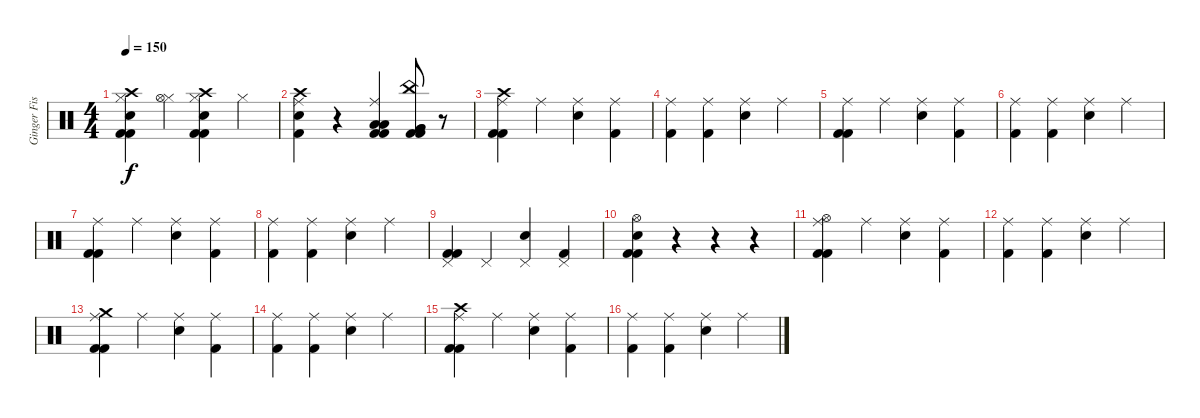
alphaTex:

\track ("Ginger Fish" "Ginger Fis") {instrument percussion}
\staff {score}
\articulation defaults
\ts (4 4)
\tempo 150
\clef neutral
\ks c
("Crash high (hit)" "Hi-Hat (closed)" "Electric Snare (hit)" "Kick (hit) 2" "Kick (hit) 2").4{dy f} ("Hi-Hat (closed)" "Hi-Hat (open)").4 ("Crash high (hit)" "Hi-Hat (closed)" "Electric Snare (hit)" "Kick (hit) 2" "Kick (hit) 2").4 "Hi-Hat (closed)".4 |
("Crash high (hit)" "Ride (middle)" "Electric Snare (hit)" "Kick (hit) 2").4 r.4 ("Ride (middle)" "Low Tom (hit)" "Low Tom (hit)" "Kick (hit) 2" "Kick (hit) 2").4 ("China (hit)" "Very Low Tom (hit)" "Very Low Tom (hit)" "Kick (hit) 2" "Kick (hit) 2").8 r.8 |
("Crash high (hit)" "Ride (middle)" "Kick (hit) 2" "Kick (hit) 2").4 "Ride (middle)".4 ("Ride (middle)" "Electric Snare (hit)").4 ("Ride (middle)" "Kick (hit) 2").4 |
("Ride (middle)" "Kick (hit) 2").4 ("Ride (middle)" "Kick (hit) 2").4 ("Ride (middle)" "Electric Snare (hit)").4 "Ride (middle)".4 |
("Ride (middle)" "Kick (hit) 2" "Kick (hit) 2").4 "Ride (middle)".4 ("Ride (middle)" "Electric Snare (hit)").4 ("Ride (middle)" "Kick (hit) 2").4 |
("Ride (middle)" "Kick (hit) 2").4 ("Ride (middle)" "Kick (hit) 2").4 ("Ride (middle)" "Electric Snare (hit)").4 "Ride (middle)".4 |
("Ride (middle)" "Kick (hit) 2" "Kick (hit) 2").4 "Ride (middle)".4 ("Ride (middle)" "Electric Snare (hit)").4 ("Ride (middle)" "Kick (hit) 2").4 |
("Ride (middle)" "Kick (hit) 2").4 ("Ride (middle)" "Kick (hit) 2").4 ("Ride (middle)" "Electric Snare (hit)").4 "Ride (middle)".4 |
("Pedal Hi-Hat (hit)" "Kick (hit) 2" "Kick (hit) 2").4 "Pedal Hi-Hat (hit)".4 ("Pedal Hi-Hat (hit)" "Electric Snare (hit)").4 ("Pedal Hi-Hat (hit)" "Kick (hit) 2").4 |
("Hi-Hat (open)" "Electric Snare (hit)" "Kick (hit) 2" "Kick (hit) 2").4 r.4 r.4 r.4 |
("Hi-Hat (open)" "Ride (middle)" "Kick (hit) 2" "Kick (hit) 2").4 "Ride (middle)".4 ("Ride (middle)" "Electric Snare (hit)").4 ("Ride (middle)" "Kick (hit) 2").4 |
("Ride (middle)" "Kick (hit) 2").4 ("Ride (middle)" "Kick (hit) 2").4 ("Ride (middle)" "Electric Snare (hit)").4 "Ride (middle)".4 |
("Crash medium (hit)" "Ride (middle)" "Kick (hit) 2" "Kick (hit) 2").4 "Ride (middle)".4 ("Ride (middle)" "Electric Snare (hit)").4 ("Ride (middle)" "Kick (hit) 2").4 |
("Ride (middle)" "Kick (hit) 2").4 ("Ride (middle)" "Kick (hit) 2").4 ("Ride (middle)" "Electric Snare (hit)").4 "Ride (middle)".4 |
("Crash high (hit)" "Ride (middle)" "Kick (hit) 2" "Kick (hit) 2").4 "Ride (middle)".4 ("Ride (middle)" "Electric Snare (hit)").4 ("Ride (middle)" "Kick (hit) 2").4 |
("Ride (middle)" "Kick (hit) 2").4 ("Ride (middle)" "Kick (hit) 2").4 ("Ride (middle)" "Electric Snare (hit)").4 "Ride (middle)".4
